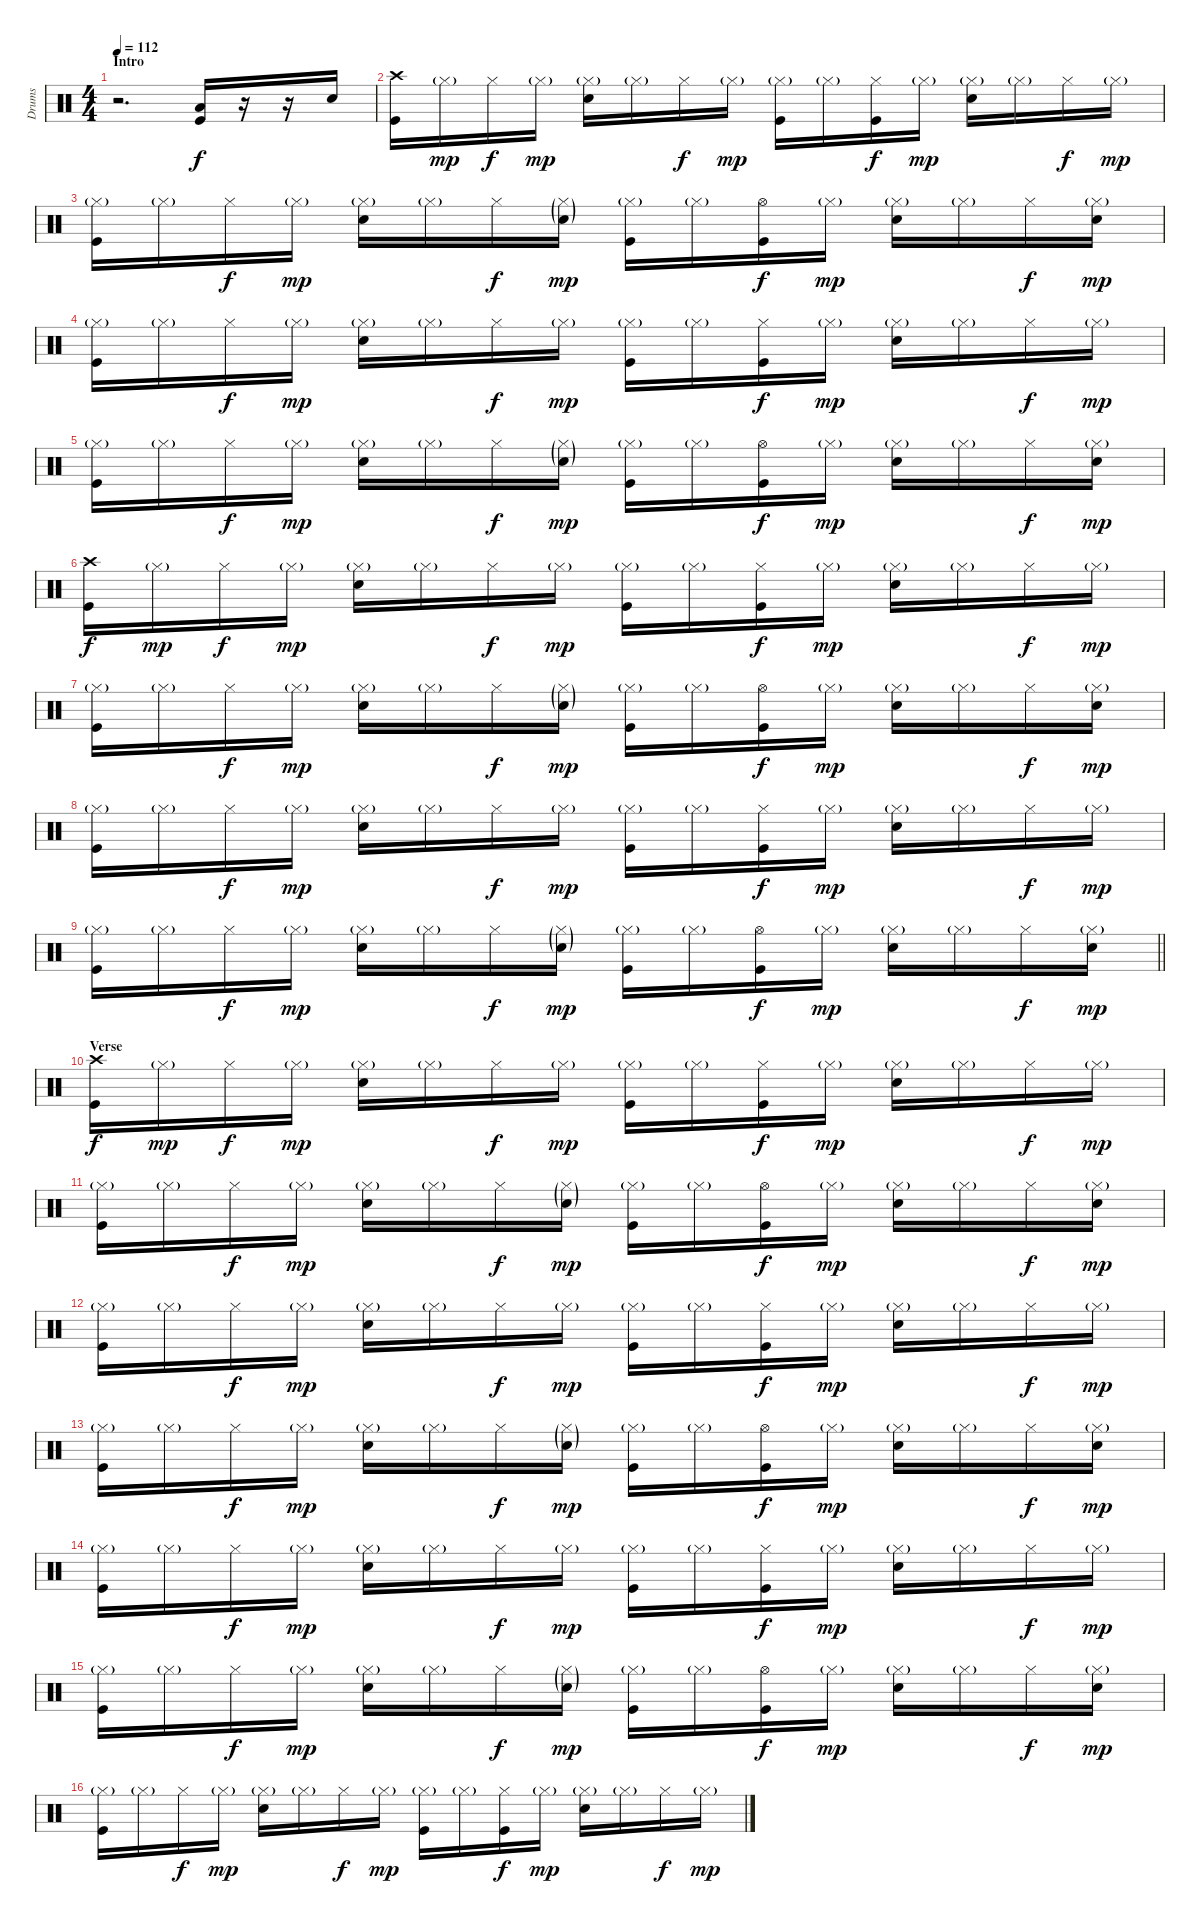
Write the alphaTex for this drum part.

\track ("Drums" "Drums") {instrument percussion}
\staff {score}
\articulation defaults
\ts (4 4)
\section ("" "Intro")
\tempo 112
\clef neutral
\ks c
r.2{d dy f} ("Low Tom (hit)" "Kick (hit)").16 r.16 r.16 "Snare (hit) 2".16 |
("Crash high (hit)" "Kick (hit)").16 "Hi-Hat (closed)"{g}.16{dy mp} "Hi-Hat (closed)".16{dy f} "Hi-Hat (closed)"{g}.16{dy mp} ("Hi-Hat (closed)"{g} "Snare (hit) 2").16 "Hi-Hat (closed)"{g}.16 "Hi-Hat (closed)".16{dy f} "Hi-Hat (closed)"{g}.16{dy mp} ("Hi-Hat (closed)"{g} "Kick (hit)").16 "Hi-Hat (closed)"{g}.16 ("Hi-Hat (closed)" "Kick (hit)").16{dy f} "Hi-Hat (closed)"{g}.16{dy mp} ("Hi-Hat (closed)"{g} "Snare (hit) 2").16 "Hi-Hat (closed)"{g}.16 "Hi-Hat (closed)".16{dy f} "Hi-Hat (closed)"{g}.16{dy mp} |
("Hi-Hat (closed)"{g} "Kick (hit)").16 "Hi-Hat (closed)"{g}.16 "Hi-Hat (closed)".16{dy f} "Hi-Hat (closed)"{g}.16{dy mp} ("Hi-Hat (closed)"{g} "Snare (hit) 2").16 "Hi-Hat (closed)"{g}.16 "Hi-Hat (closed)".16{dy f} ("Hi-Hat (closed)"{g} "Snare (hit) 2"{g}).16{dy mp} ("Hi-Hat (closed)"{g} "Kick (hit)").16 "Hi-Hat (closed)"{g}.16 ("Hi-Hat (open)" "Kick (hit)").16{dy f} "Hi-Hat (closed)"{g}.16{dy mp} ("Hi-Hat (closed)"{g} "Snare (hit) 2").16 "Hi-Hat (closed)"{g}.16 "Hi-Hat (closed)".16{dy f} ("Hi-Hat (closed)"{g} "Snare (hit) 2").16{dy mp} |
("Hi-Hat (closed)"{g} "Kick (hit)").16 "Hi-Hat (closed)"{g}.16 "Hi-Hat (closed)".16{dy f} "Hi-Hat (closed)"{g}.16{dy mp} ("Hi-Hat (closed)"{g} "Snare (hit) 2").16 "Hi-Hat (closed)"{g}.16 "Hi-Hat (closed)".16{dy f} "Hi-Hat (closed)"{g}.16{dy mp} ("Hi-Hat (closed)"{g} "Kick (hit)").16 "Hi-Hat (closed)"{g}.16 ("Hi-Hat (closed)" "Kick (hit)").16{dy f} "Hi-Hat (closed)"{g}.16{dy mp} ("Hi-Hat (closed)"{g} "Snare (hit) 2").16 "Hi-Hat (closed)"{g}.16 "Hi-Hat (closed)".16{dy f} "Hi-Hat (closed)"{g}.16{dy mp} |
("Hi-Hat (closed)"{g} "Kick (hit)").16 "Hi-Hat (closed)"{g}.16 "Hi-Hat (closed)".16{dy f} "Hi-Hat (closed)"{g}.16{dy mp} ("Hi-Hat (closed)"{g} "Snare (hit) 2").16 "Hi-Hat (closed)"{g}.16 "Hi-Hat (closed)".16{dy f} ("Hi-Hat (closed)"{g} "Snare (hit) 2"{g}).16{dy mp} ("Hi-Hat (closed)"{g} "Kick (hit)").16 "Hi-Hat (closed)"{g}.16 ("Hi-Hat (open)" "Kick (hit)").16{dy f} "Hi-Hat (closed)"{g}.16{dy mp} ("Hi-Hat (closed)"{g} "Snare (hit) 2").16 "Hi-Hat (closed)"{g}.16 "Hi-Hat (closed)".16{dy f} ("Hi-Hat (closed)"{g} "Snare (hit) 2").16{dy mp} |
("Crash high (hit)" "Kick (hit)").16{dy f} "Hi-Hat (closed)"{g}.16{dy mp} "Hi-Hat (closed)".16{dy f} "Hi-Hat (closed)"{g}.16{dy mp} ("Hi-Hat (closed)"{g} "Snare (hit) 2").16 "Hi-Hat (closed)"{g}.16 "Hi-Hat (closed)".16{dy f} "Hi-Hat (closed)"{g}.16{dy mp} ("Hi-Hat (closed)"{g} "Kick (hit)").16 "Hi-Hat (closed)"{g}.16 ("Hi-Hat (closed)" "Kick (hit)").16{dy f} "Hi-Hat (closed)"{g}.16{dy mp} ("Hi-Hat (closed)"{g} "Snare (hit) 2").16 "Hi-Hat (closed)"{g}.16 "Hi-Hat (closed)".16{dy f} "Hi-Hat (closed)"{g}.16{dy mp} |
("Hi-Hat (closed)"{g} "Kick (hit)").16 "Hi-Hat (closed)"{g}.16 "Hi-Hat (closed)".16{dy f} "Hi-Hat (closed)"{g}.16{dy mp} ("Hi-Hat (closed)"{g} "Snare (hit) 2").16 "Hi-Hat (closed)"{g}.16 "Hi-Hat (closed)".16{dy f} ("Hi-Hat (closed)"{g} "Snare (hit) 2"{g}).16{dy mp} ("Hi-Hat (closed)"{g} "Kick (hit)").16 "Hi-Hat (closed)"{g}.16 ("Hi-Hat (open)" "Kick (hit)").16{dy f} "Hi-Hat (closed)"{g}.16{dy mp} ("Hi-Hat (closed)"{g} "Snare (hit) 2").16 "Hi-Hat (closed)"{g}.16 "Hi-Hat (closed)".16{dy f} ("Hi-Hat (closed)"{g} "Snare (hit) 2").16{dy mp} |
("Hi-Hat (closed)"{g} "Kick (hit)").16 "Hi-Hat (closed)"{g}.16 "Hi-Hat (closed)".16{dy f} "Hi-Hat (closed)"{g}.16{dy mp} ("Hi-Hat (closed)"{g} "Snare (hit) 2").16 "Hi-Hat (closed)"{g}.16 "Hi-Hat (closed)".16{dy f} "Hi-Hat (closed)"{g}.16{dy mp} ("Hi-Hat (closed)"{g} "Kick (hit)").16 "Hi-Hat (closed)"{g}.16 ("Hi-Hat (closed)" "Kick (hit)").16{dy f} "Hi-Hat (closed)"{g}.16{dy mp} ("Hi-Hat (closed)"{g} "Snare (hit) 2").16 "Hi-Hat (closed)"{g}.16 "Hi-Hat (closed)".16{dy f} "Hi-Hat (closed)"{g}.16{dy mp} |
\barLineRight lightlight
("Hi-Hat (closed)"{g} "Kick (hit)").16 "Hi-Hat (closed)"{g}.16 "Hi-Hat (closed)".16{dy f} "Hi-Hat (closed)"{g}.16{dy mp} ("Hi-Hat (closed)"{g} "Snare (hit) 2").16 "Hi-Hat (closed)"{g}.16 "Hi-Hat (closed)".16{dy f} ("Hi-Hat (closed)"{g} "Snare (hit) 2"{g}).16{dy mp} ("Hi-Hat (closed)"{g} "Kick (hit)").16 "Hi-Hat (closed)"{g}.16 ("Hi-Hat (open)" "Kick (hit)").16{dy f} "Hi-Hat (closed)"{g}.16{dy mp} ("Hi-Hat (closed)"{g} "Snare (hit) 2").16 "Hi-Hat (closed)"{g}.16 "Hi-Hat (closed)".16{dy f} ("Hi-Hat (closed)"{g} "Snare (hit) 2").16{dy mp} |
\section ("" "Verse")
("Crash high (hit)" "Kick (hit)").16{dy f} "Hi-Hat (closed)"{g}.16{dy mp} "Hi-Hat (closed)".16{dy f} "Hi-Hat (closed)"{g}.16{dy mp} ("Hi-Hat (closed)"{g} "Snare (hit) 2").16 "Hi-Hat (closed)"{g}.16 "Hi-Hat (closed)".16{dy f} "Hi-Hat (closed)"{g}.16{dy mp} ("Hi-Hat (closed)"{g} "Kick (hit)").16 "Hi-Hat (closed)"{g}.16 ("Hi-Hat (closed)" "Kick (hit)").16{dy f} "Hi-Hat (closed)"{g}.16{dy mp} ("Hi-Hat (closed)"{g} "Snare (hit) 2").16 "Hi-Hat (closed)"{g}.16 "Hi-Hat (closed)".16{dy f} "Hi-Hat (closed)"{g}.16{dy mp} |
("Hi-Hat (closed)"{g} "Kick (hit)").16 "Hi-Hat (closed)"{g}.16 "Hi-Hat (closed)".16{dy f} "Hi-Hat (closed)"{g}.16{dy mp} ("Hi-Hat (closed)"{g} "Snare (hit) 2").16 "Hi-Hat (closed)"{g}.16 "Hi-Hat (closed)".16{dy f} ("Hi-Hat (closed)"{g} "Snare (hit) 2"{g}).16{dy mp} ("Hi-Hat (closed)"{g} "Kick (hit)").16 "Hi-Hat (closed)"{g}.16 ("Hi-Hat (open)" "Kick (hit)").16{dy f} "Hi-Hat (closed)"{g}.16{dy mp} ("Hi-Hat (closed)"{g} "Snare (hit) 2").16 "Hi-Hat (closed)"{g}.16 "Hi-Hat (closed)".16{dy f} ("Hi-Hat (closed)"{g} "Snare (hit) 2").16{dy mp} |
("Hi-Hat (closed)"{g} "Kick (hit)").16 "Hi-Hat (closed)"{g}.16 "Hi-Hat (closed)".16{dy f} "Hi-Hat (closed)"{g}.16{dy mp} ("Hi-Hat (closed)"{g} "Snare (hit) 2").16 "Hi-Hat (closed)"{g}.16 "Hi-Hat (closed)".16{dy f} "Hi-Hat (closed)"{g}.16{dy mp} ("Hi-Hat (closed)"{g} "Kick (hit)").16 "Hi-Hat (closed)"{g}.16 ("Hi-Hat (closed)" "Kick (hit)").16{dy f} "Hi-Hat (closed)"{g}.16{dy mp} ("Hi-Hat (closed)"{g} "Snare (hit) 2").16 "Hi-Hat (closed)"{g}.16 "Hi-Hat (closed)".16{dy f} "Hi-Hat (closed)"{g}.16{dy mp} |
("Hi-Hat (closed)"{g} "Kick (hit)").16 "Hi-Hat (closed)"{g}.16 "Hi-Hat (closed)".16{dy f} "Hi-Hat (closed)"{g}.16{dy mp} ("Hi-Hat (closed)"{g} "Snare (hit) 2").16 "Hi-Hat (closed)"{g}.16 "Hi-Hat (closed)".16{dy f} ("Hi-Hat (closed)"{g} "Snare (hit) 2"{g}).16{dy mp} ("Hi-Hat (closed)"{g} "Kick (hit)").16 "Hi-Hat (closed)"{g}.16 ("Hi-Hat (open)" "Kick (hit)").16{dy f} "Hi-Hat (closed)"{g}.16{dy mp} ("Hi-Hat (closed)"{g} "Snare (hit) 2").16 "Hi-Hat (closed)"{g}.16 "Hi-Hat (closed)".16{dy f} ("Hi-Hat (closed)"{g} "Snare (hit) 2").16{dy mp} |
("Hi-Hat (closed)"{g} "Kick (hit)").16 "Hi-Hat (closed)"{g}.16 "Hi-Hat (closed)".16{dy f} "Hi-Hat (closed)"{g}.16{dy mp} ("Hi-Hat (closed)"{g} "Snare (hit) 2").16 "Hi-Hat (closed)"{g}.16 "Hi-Hat (closed)".16{dy f} "Hi-Hat (closed)"{g}.16{dy mp} ("Hi-Hat (closed)"{g} "Kick (hit)").16 "Hi-Hat (closed)"{g}.16 ("Hi-Hat (closed)" "Kick (hit)").16{dy f} "Hi-Hat (closed)"{g}.16{dy mp} ("Hi-Hat (closed)"{g} "Snare (hit) 2").16 "Hi-Hat (closed)"{g}.16 "Hi-Hat (closed)".16{dy f} "Hi-Hat (closed)"{g}.16{dy mp} |
("Hi-Hat (closed)"{g} "Kick (hit)").16 "Hi-Hat (closed)"{g}.16 "Hi-Hat (closed)".16{dy f} "Hi-Hat (closed)"{g}.16{dy mp} ("Hi-Hat (closed)"{g} "Snare (hit) 2").16 "Hi-Hat (closed)"{g}.16 "Hi-Hat (closed)".16{dy f} ("Hi-Hat (closed)"{g} "Snare (hit) 2"{g}).16{dy mp} ("Hi-Hat (closed)"{g} "Kick (hit)").16 "Hi-Hat (closed)"{g}.16 ("Hi-Hat (open)" "Kick (hit)").16{dy f} "Hi-Hat (closed)"{g}.16{dy mp} ("Hi-Hat (closed)"{g} "Snare (hit) 2").16 "Hi-Hat (closed)"{g}.16 "Hi-Hat (closed)".16{dy f} ("Hi-Hat (closed)"{g} "Snare (hit) 2").16{dy mp} |
("Hi-Hat (closed)"{g} "Kick (hit)").16 "Hi-Hat (closed)"{g}.16 "Hi-Hat (closed)".16{dy f} "Hi-Hat (closed)"{g}.16{dy mp} ("Hi-Hat (closed)"{g} "Snare (hit) 2").16 "Hi-Hat (closed)"{g}.16 "Hi-Hat (closed)".16{dy f} "Hi-Hat (closed)"{g}.16{dy mp} ("Hi-Hat (closed)"{g} "Kick (hit)").16 "Hi-Hat (closed)"{g}.16 ("Hi-Hat (closed)" "Kick (hit)").16{dy f} "Hi-Hat (closed)"{g}.16{dy mp} ("Hi-Hat (closed)"{g} "Snare (hit) 2").16 "Hi-Hat (closed)"{g}.16 "Hi-Hat (closed)".16{dy f} "Hi-Hat (closed)"{g}.16{dy mp}
